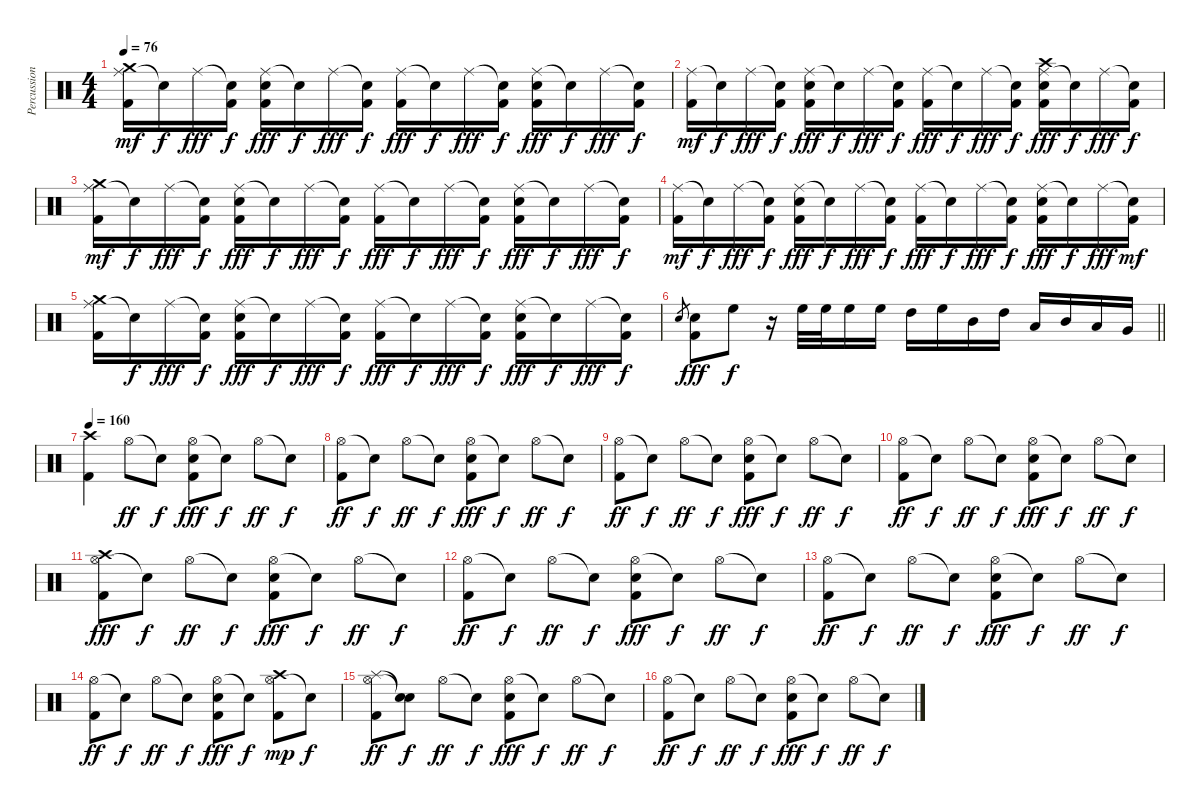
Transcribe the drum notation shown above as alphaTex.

\track ("Percussion" "Percussion") {instrument percussion}
\staff {score}
\articulation defaults
\ts (4 4)
\tempo 76
\clef neutral
\ks c
("Ride (middle)" "Crash medium (hit)" "Kick (hit) 2").16{dy mf} "Snare (hit)"{t}.16{dy f} "Ride (middle)".16{dy fff} ("Snare (hit)"{t} "Kick (hit) 2").16{dy f} ("Ride (middle)" "Electric Snare (hit)" "Kick (hit) 2").16{dy fff} "Snare (hit)"{t}.16{dy f} "Ride (middle)".16{dy fff} ("Snare (hit)"{t} "Kick (hit) 2").16{dy f} ("Ride (middle)" "Kick (hit) 2").16{dy fff} "Snare (hit)"{t}.16{dy f} "Ride (middle)".16{dy fff} ("Snare (hit)"{t} "Kick (hit) 2").16{dy f} ("Ride (middle)" "Electric Snare (hit)" "Kick (hit) 2").16{dy fff} "Snare (hit)"{t}.16{dy f} "Ride (middle)".16{dy fff} ("Snare (hit)"{t} "Kick (hit) 2").16{dy f} |
("Ride (middle)" "Kick (hit) 2").16{dy mf} "Snare (hit)"{t}.16{dy f} "Ride (middle)".16{dy fff} ("Snare (hit)"{t} "Kick (hit) 2").16{dy f} ("Ride (middle)" "Electric Snare (hit)" "Kick (hit) 2").16{dy fff} "Snare (hit)"{t}.16{dy f} "Ride (middle)".16{dy fff} ("Snare (hit)"{t} "Kick (hit) 2").16{dy f} ("Ride (middle)" "Kick (hit) 2").16{dy fff} "Snare (hit)"{t}.16{dy f} "Ride (middle)".16{dy fff} ("Snare (hit)"{t} "Kick (hit) 2").16{dy f} ("Ride (middle)" "Crash high (hit)" "Electric Snare (hit)" "Kick (hit) 2").16{dy fff} "Snare (hit)"{t}.16{dy f} "Ride (middle)".16{dy fff} ("Snare (hit)"{t} "Kick (hit) 2").16{dy f} |
("Ride (middle)" "Crash medium (hit)" "Kick (hit) 2").16{dy mf} "Snare (hit)"{t}.16{dy f} "Ride (middle)".16{dy fff} ("Snare (hit)"{t} "Kick (hit) 2").16{dy f} ("Ride (middle)" "Electric Snare (hit)" "Kick (hit) 2").16{dy fff} "Snare (hit)"{t}.16{dy f} "Ride (middle)".16{dy fff} ("Snare (hit)"{t} "Kick (hit) 2").16{dy f} ("Ride (middle)" "Kick (hit) 2").16{dy fff} "Snare (hit)"{t}.16{dy f} "Ride (middle)".16{dy fff} ("Snare (hit)"{t} "Kick (hit) 2").16{dy f} ("Ride (middle)" "Electric Snare (hit)" "Kick (hit) 2").16{dy fff} "Snare (hit)"{t}.16{dy f} "Ride (middle)".16{dy fff} ("Snare (hit)"{t} "Kick (hit) 2").16{dy f} |
("Ride (middle)" "Kick (hit) 2").16{dy mf} "Snare (hit)"{t}.16{dy f} "Ride (middle)".16{dy fff} ("Snare (hit)"{t} "Kick (hit) 2").16{dy f} ("Ride (middle)" "Electric Snare (hit)" "Kick (hit) 2").16{dy fff} "Snare (hit)"{t}.16{dy f} "Ride (middle)".16{dy fff} ("Snare (hit)"{t} "Kick (hit) 2").16{dy f} ("Ride (middle)" "Kick (hit) 2").16{dy fff} "Snare (hit)"{t}.16{dy f} "Ride (middle)".16{dy fff} ("Snare (hit)"{t} "Kick (hit) 2").16{dy f} ("Ride (middle)" "Electric Snare (hit)" "Kick (hit) 2").16{dy fff} "Snare (hit)"{t}.16{dy f} "Ride (middle)".16{dy fff} ("Snare (hit)"{t} "Kick (hit) 2").16{dy mf} |
("Ride (middle)" "Crash medium (hit)" "Kick (hit) 2").16 "Snare (hit)"{t}.16{dy f} "Ride (middle)".16{dy fff} ("Snare (hit)"{t} "Kick (hit) 2").16{dy f} ("Ride (middle)" "Electric Snare (hit)" "Kick (hit) 2").16{dy fff} "Snare (hit)"{t}.16{dy f} "Ride (middle)".16{dy fff} ("Snare (hit)"{t} "Kick (hit) 2").16{dy f} ("Ride (middle)" "Kick (hit) 2").16{dy fff} "Snare (hit)"{t}.16{dy f} "Ride (middle)".16{dy fff} ("Snare (hit)"{t} "Kick (hit) 2").16{dy f} ("Ride (middle)" "Electric Snare (hit)" "Kick (hit) 2").16{dy fff} "Snare (hit)"{t}.16{dy f} "Ride (middle)".16{dy fff} ("Snare (hit)"{t} "Kick (hit) 2").16{dy f} |
\barLineRight lightlight "Electric Snare (hit)".8{gr}
("Electric Snare (hit)" "Kick (hit) 2").8{dy fff} "High Floor Tom (hit)".8{dy f} r.16 "High Floor Tom (hit)".32 "High Floor Tom (hit)".32 "High Floor Tom (hit)".16 "High Floor Tom (hit)".16 "High Tom (hit)".16 "High Floor Tom (hit)".16 "Mid Tom (hit)".16 "High Tom (hit)".16 "Low Tom (hit)".16 "Mid Tom (hit)".16 "Low Tom (hit)".16 "Very Low Tom (hit)".16 |
\tempo 160
("Crash high (hit)" "Kick (hit) 2").4 "Hi-Hat (open)".8{dy ff} "Snare (hit)"{t}.8{dy f} ("Hi-Hat (open)" "Electric Snare (hit)" "Kick (hit) 2").8{dy fff} "Snare (hit)"{t}.8{dy f} "Hi-Hat (open)".8{dy ff} "Snare (hit)"{t}.8{dy f} |
("Hi-Hat (open)" "Kick (hit) 2").8{dy ff} "Snare (hit)"{t}.8{dy f} "Hi-Hat (open)".8{dy ff} "Snare (hit)"{t}.8{dy f} ("Hi-Hat (open)" "Electric Snare (hit)" "Kick (hit) 2").8{dy fff} "Snare (hit)"{t}.8{dy f} "Hi-Hat (open)".8{dy ff} "Snare (hit)"{t}.8{dy f} |
("Hi-Hat (open)" "Kick (hit) 2").8{dy ff} "Snare (hit)"{t}.8{dy f} "Hi-Hat (open)".8{dy ff} "Snare (hit)"{t}.8{dy f} ("Hi-Hat (open)" "Electric Snare (hit)" "Kick (hit) 2").8{dy fff} "Snare (hit)"{t}.8{dy f} "Hi-Hat (open)".8{dy ff} "Snare (hit)"{t}.8{dy f} |
("Hi-Hat (open)" "Kick (hit) 2").8{dy ff} "Snare (hit)"{t}.8{dy f} "Hi-Hat (open)".8{dy ff} "Snare (hit)"{t}.8{dy f} ("Hi-Hat (open)" "Electric Snare (hit)" "Kick (hit) 2").8{dy fff} "Snare (hit)"{t}.8{dy f} "Hi-Hat (open)".8{dy ff} "Snare (hit)"{t}.8{dy f} |
("Hi-Hat (open)" "Crash high (hit)" "Kick (hit) 2").8{dy fff} "Snare (hit)"{t}.8{dy f} "Hi-Hat (open)".8{dy ff} "Snare (hit)"{t}.8{dy f} ("Hi-Hat (open)" "Electric Snare (hit)" "Kick (hit) 2").8{dy fff} "Snare (hit)"{t}.8{dy f} "Hi-Hat (open)".8{dy ff} "Snare (hit)"{t}.8{dy f} |
("Hi-Hat (open)" "Kick (hit) 2").8{dy ff} "Snare (hit)"{t}.8{dy f} "Hi-Hat (open)".8{dy ff} "Snare (hit)"{t}.8{dy f} ("Hi-Hat (open)" "Electric Snare (hit)" "Kick (hit) 2").8{dy fff} "Snare (hit)"{t}.8{dy f} "Hi-Hat (open)".8{dy ff} "Snare (hit)"{t}.8{dy f} |
("Hi-Hat (open)" "Kick (hit) 2").8{dy ff} "Snare (hit)"{t}.8{dy f} "Hi-Hat (open)".8{dy ff} "Snare (hit)"{t}.8{dy f} ("Hi-Hat (open)" "Electric Snare (hit)" "Kick (hit) 2").8{dy fff} "Snare (hit)"{t}.8{dy f} "Hi-Hat (open)".8{dy ff} "Snare (hit)"{t}.8{dy f} |
("Hi-Hat (open)" "Kick (hit) 2").8{dy ff} "Snare (hit)"{t}.8{dy f} "Hi-Hat (open)".8{dy ff} "Snare (hit)"{t}.8{dy f} ("Hi-Hat (open)" "Electric Snare (hit)" "Kick (hit) 2").8{dy fff} "Snare (hit)"{t}.8{dy f} ("Hi-Hat (open)" "Crash high (hit)" "Kick (hit) 2").8{dy mp} "Snare (hit)"{t}.8{dy f} |
("Hi-Hat (open)" "Splash (hit)" "Kick (hit) 2").8{dy ff} ("Snare (hit)"{t} "Snare (hit)"{t}).8{dy f} "Hi-Hat (open)".8{dy ff} "Snare (hit)"{t}.8{dy f} ("Hi-Hat (open)" "Electric Snare (hit)" "Kick (hit) 2").8{dy fff} "Snare (hit)"{t}.8{dy f} "Hi-Hat (open)".8{dy ff} "Snare (hit)"{t}.8{dy f} |
("Hi-Hat (open)" "Kick (hit) 2").8{dy ff} "Snare (hit)"{t}.8{dy f} "Hi-Hat (open)".8{dy ff} "Snare (hit)"{t}.8{dy f} ("Hi-Hat (open)" "Electric Snare (hit)" "Kick (hit) 2").8{dy fff} "Snare (hit)"{t}.8{dy f} "Hi-Hat (open)".8{dy ff} "Snare (hit)"{t}.8{dy f}
